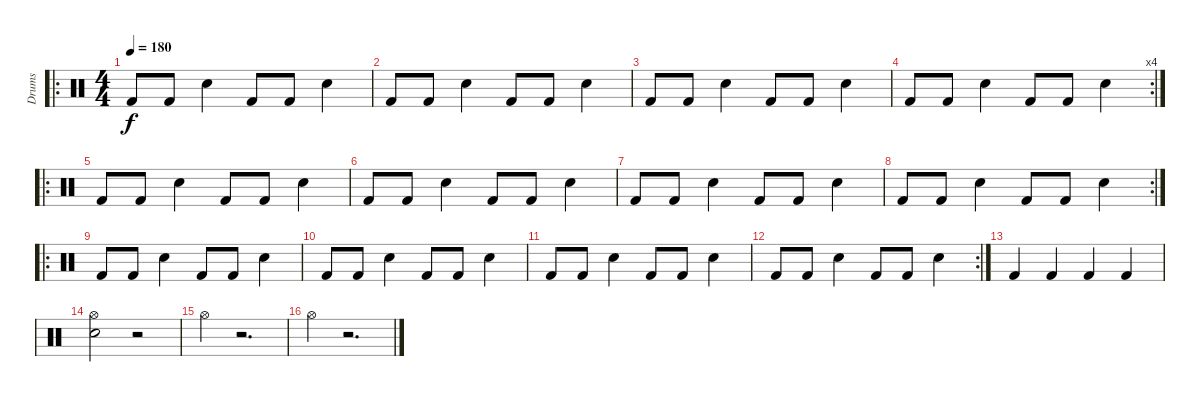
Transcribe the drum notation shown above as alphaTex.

\track ("Drums" "Drums") {instrument percussion}
\staff {score}
\articulation defaults
\ro
\ts (4 4)
\tempo 180
\clef neutral
\ks c "Kick (hit) 2".8{dy f} "Kick (hit) 2".8 "Snare (hit) 2".4 "Kick (hit) 2".8 "Kick (hit) 2".8 "Snare (hit) 2".4
|
"Kick (hit) 2".8 "Kick (hit) 2".8 "Snare (hit) 2".4 "Kick (hit) 2".8 "Kick (hit) 2".8 "Snare (hit) 2".4 |
"Kick (hit) 2".8 "Kick (hit) 2".8 "Snare (hit) 2".4 "Kick (hit) 2".8 "Kick (hit) 2".8 "Snare (hit) 2".4 |
\rc 4 "Kick (hit) 2".8 "Kick (hit) 2".8 "Snare (hit) 2".4 "Kick (hit) 2".8 "Kick (hit) 2".8 "Snare (hit) 2".4
|
\ro "Kick (hit) 2".8 "Kick (hit) 2".8 "Snare (hit) 2".4 "Kick (hit) 2".8 "Kick (hit) 2".8 "Snare (hit) 2".4
|
"Kick (hit) 2".8 "Kick (hit) 2".8 "Snare (hit) 2".4 "Kick (hit) 2".8 "Kick (hit) 2".8 "Snare (hit) 2".4 |
"Kick (hit) 2".8 "Kick (hit) 2".8 "Snare (hit) 2".4 "Kick (hit) 2".8 "Kick (hit) 2".8 "Snare (hit) 2".4 |
\rc 2 "Kick (hit) 2".8 "Kick (hit) 2".8 "Snare (hit) 2".4 "Kick (hit) 2".8 "Kick (hit) 2".8 "Snare (hit) 2".4
|
\ro "Kick (hit) 2".8 "Kick (hit) 2".8 "Snare (hit) 2".4 "Kick (hit) 2".8 "Kick (hit) 2".8 "Snare (hit) 2".4
|
"Kick (hit) 2".8 "Kick (hit) 2".8 "Snare (hit) 2".4 "Kick (hit) 2".8 "Kick (hit) 2".8 "Snare (hit) 2".4 |
"Kick (hit) 2".8 "Kick (hit) 2".8 "Snare (hit) 2".4 "Kick (hit) 2".8 "Kick (hit) 2".8 "Snare (hit) 2".4 |
\rc 2 "Kick (hit) 2".8 "Kick (hit) 2".8 "Snare (hit) 2".4 "Kick (hit) 2".8 "Kick (hit) 2".8 "Snare (hit) 2".4
|
"Kick (hit) 2".4 "Kick (hit) 2".4 "Kick (hit) 2".4 "Kick (hit) 2".4 |
("Snare (hit) 2" "Hi-Hat (open)").2 r.2 |
"Hi-Hat (open)".4 r.2{d} |
"Hi-Hat (open)".4 r.2{d}
